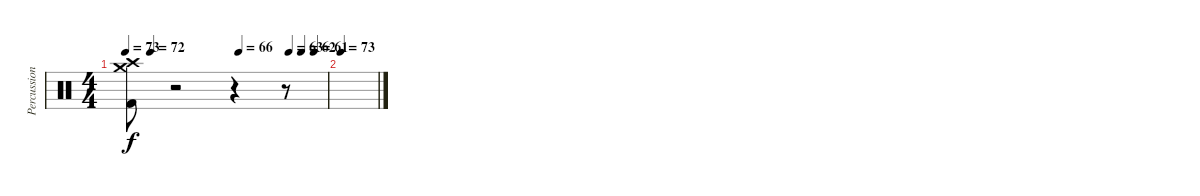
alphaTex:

\track ("Percussions" "Percussion") {instrument percussion}
\staff {score}
\articulation defaults
\ts (4 4)
\tempo 73
\tempo (63 0.8125)
\tempo (72 0.125)
\tempo (62 0.875)
\tempo (66 0.5625)
\tempo (61 0.9375)
\clef neutral
\ks c
("Crash medium (hit)" "Crash high (hit)" "Kick (hit) 2").8{dy f} r.2 r.4 r.8 |
\tempo 73
